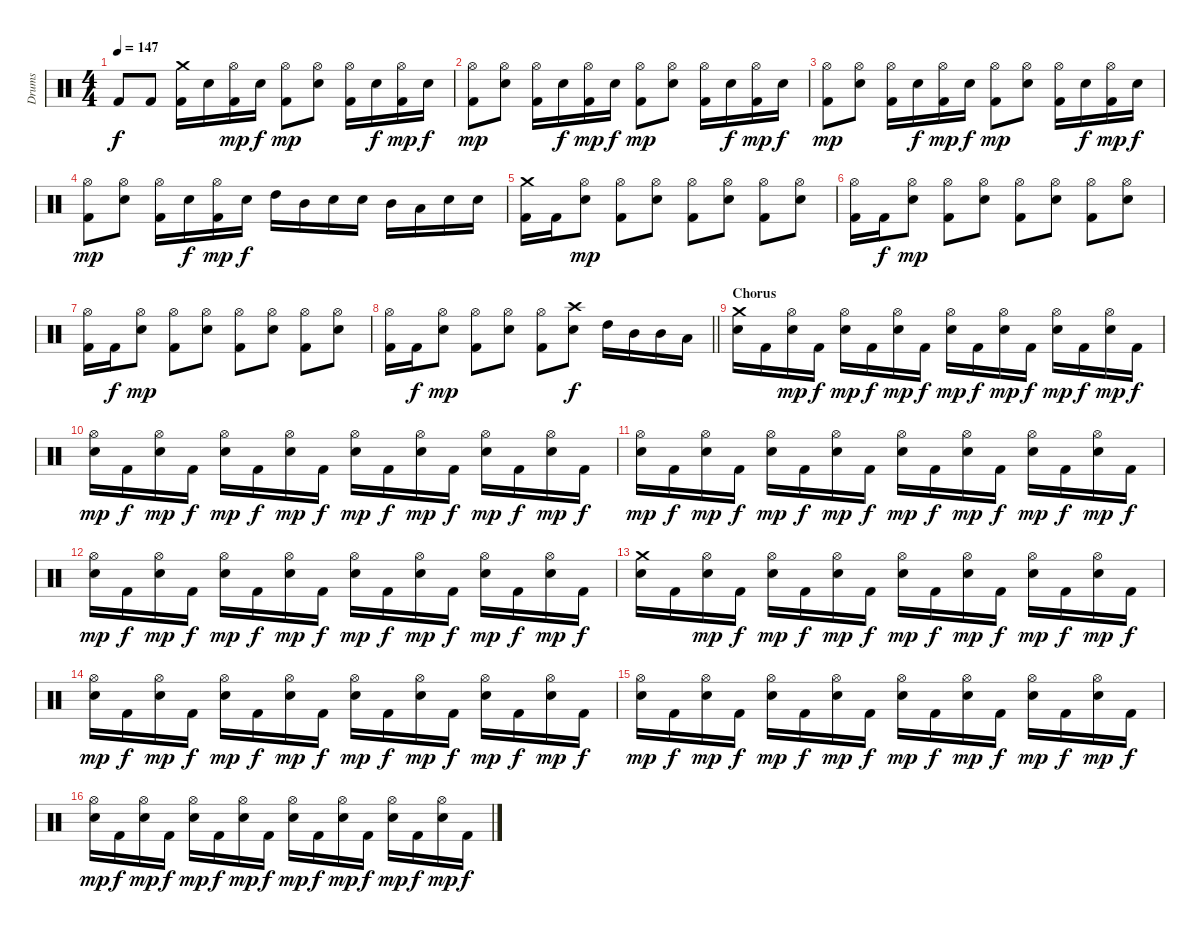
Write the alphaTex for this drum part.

\track ("Drums" "Drums") {instrument percussion}
\staff {score}
\articulation defaults
\ts (4 4)
\tempo 147
\clef neutral
\ks c "Kick (hit) 2".8{dy f} "Kick (hit) 2".8
("Crash medium (hit)" "Kick (hit) 2").16 "Snare (hit) 2".16 ("Hi-Hat (open)" "Kick (hit) 2").16{dy mp} "Snare (hit) 2".16{dy f} ("Hi-Hat (open)" "Kick (hit) 2").8{dy mp} ("Hi-Hat (open)" "Snare (hit) 2").8 ("Hi-Hat (open)" "Kick (hit) 2").16 "Snare (hit) 2".16{dy f} ("Hi-Hat (open)" "Kick (hit) 2").16{dy mp} "Snare (hit) 2".16{dy f} |
("Hi-Hat (open)" "Kick (hit) 2").8{dy mp} ("Hi-Hat (open)" "Snare (hit) 2").8 ("Hi-Hat (open)" "Kick (hit) 2").16 "Snare (hit) 2".16{dy f} ("Hi-Hat (open)" "Kick (hit) 2").16{dy mp} "Snare (hit) 2".16{dy f} ("Hi-Hat (open)" "Kick (hit) 2").8{dy mp} ("Hi-Hat (open)" "Snare (hit) 2").8 ("Hi-Hat (open)" "Kick (hit) 2").16 "Snare (hit) 2".16{dy f} ("Hi-Hat (open)" "Kick (hit) 2").16{dy mp} "Snare (hit) 2".16{dy f} |
("Hi-Hat (open)" "Kick (hit) 2").8{dy mp} ("Hi-Hat (open)" "Snare (hit) 2").8 ("Hi-Hat (open)" "Kick (hit) 2").16 "Snare (hit) 2".16{dy f} ("Hi-Hat (open)" "Kick (hit) 2").16{dy mp} "Snare (hit) 2".16{dy f} ("Hi-Hat (open)" "Kick (hit) 2").8{dy mp} ("Hi-Hat (open)" "Snare (hit) 2").8 ("Hi-Hat (open)" "Kick (hit) 2").16 "Snare (hit) 2".16{dy f} ("Hi-Hat (open)" "Kick (hit) 2").16{dy mp} "Snare (hit) 2".16{dy f} |
("Hi-Hat (open)" "Kick (hit) 2").8{dy mp} ("Hi-Hat (open)" "Snare (hit) 2").8 ("Hi-Hat (open)" "Kick (hit) 2").16 "Snare (hit) 2".16{dy f} ("Hi-Hat (open)" "Kick (hit) 2").16{dy mp} "Snare (hit) 2".16{dy f} "High Tom (hit)".16 "Mid Tom (hit)".16 "Snare (hit) 2".16 "Snare (hit) 2".16 "Mid Tom (hit)".16 "Low Tom (hit)".16 "Snare (hit) 2".16 "Snare (hit) 2".16 |
("Crash medium (hit)" "Kick (hit) 2").16 "Kick (hit) 2".16 ("Hi-Hat (open)" "Snare (hit) 2").8{dy mp} ("Hi-Hat (open)" "Kick (hit) 2").8 ("Hi-Hat (open)" "Snare (hit) 2").8 ("Hi-Hat (open)" "Kick (hit) 2").8 ("Hi-Hat (open)" "Snare (hit) 2").8 ("Hi-Hat (open)" "Kick (hit) 2").8 ("Hi-Hat (open)" "Snare (hit) 2").8 |
("Hi-Hat (open)" "Kick (hit) 2").16 "Kick (hit) 2".16{dy f} ("Hi-Hat (open)" "Snare (hit) 2").8{dy mp} ("Hi-Hat (open)" "Kick (hit) 2").8 ("Hi-Hat (open)" "Snare (hit) 2").8 ("Hi-Hat (open)" "Kick (hit) 2").8 ("Hi-Hat (open)" "Snare (hit) 2").8 ("Hi-Hat (open)" "Kick (hit) 2").8 ("Hi-Hat (open)" "Snare (hit) 2").8 |
("Hi-Hat (open)" "Kick (hit) 2").16 "Kick (hit) 2".16{dy f} ("Hi-Hat (open)" "Snare (hit) 2").8{dy mp} ("Hi-Hat (open)" "Kick (hit) 2").8 ("Hi-Hat (open)" "Snare (hit) 2").8 ("Hi-Hat (open)" "Kick (hit) 2").8 ("Hi-Hat (open)" "Snare (hit) 2").8 ("Hi-Hat (open)" "Kick (hit) 2").8 ("Hi-Hat (open)" "Snare (hit) 2").8 |
\barLineRight lightlight
("Hi-Hat (open)" "Kick (hit) 2").16 "Kick (hit) 2".16{dy f} ("Hi-Hat (open)" "Snare (hit) 2").8{dy mp} ("Hi-Hat (open)" "Kick (hit) 2").8 ("Hi-Hat (open)" "Snare (hit) 2").8 ("Hi-Hat (open)" "Kick (hit) 2").8 ("Crash high (hit)" "Snare (hit) 2").8{dy f} "High Tom (hit)".16 "Mid Tom (hit)".16 "Mid Tom (hit)".16 "Low Tom (hit)".16 |
\section ("" "Chorus")
("Crash medium (hit)" "Snare (hit) 2").16 "Kick (hit) 2".16 ("Hi-Hat (open)" "Snare (hit) 2").16{dy mp} "Kick (hit) 2".16{dy f} ("Hi-Hat (open)" "Snare (hit) 2").16{dy mp} "Kick (hit) 2".16{dy f} ("Hi-Hat (open)" "Snare (hit) 2").16{dy mp} "Kick (hit) 2".16{dy f} ("Hi-Hat (open)" "Snare (hit) 2").16{dy mp} "Kick (hit) 2".16{dy f} ("Hi-Hat (open)" "Snare (hit) 2").16{dy mp} "Kick (hit) 2".16{dy f} ("Hi-Hat (open)" "Snare (hit) 2").16{dy mp} "Kick (hit) 2".16{dy f} ("Hi-Hat (open)" "Snare (hit) 2").16{dy mp} "Kick (hit) 2".16{dy f} |
("Hi-Hat (open)" "Snare (hit) 2").16{dy mp} "Kick (hit) 2".16{dy f} ("Hi-Hat (open)" "Snare (hit) 2").16{dy mp} "Kick (hit) 2".16{dy f} ("Hi-Hat (open)" "Snare (hit) 2").16{dy mp} "Kick (hit) 2".16{dy f} ("Hi-Hat (open)" "Snare (hit) 2").16{dy mp} "Kick (hit) 2".16{dy f} ("Hi-Hat (open)" "Snare (hit) 2").16{dy mp} "Kick (hit) 2".16{dy f} ("Hi-Hat (open)" "Snare (hit) 2").16{dy mp} "Kick (hit) 2".16{dy f} ("Hi-Hat (open)" "Snare (hit) 2").16{dy mp} "Kick (hit) 2".16{dy f} ("Hi-Hat (open)" "Snare (hit) 2").16{dy mp} "Kick (hit) 2".16{dy f} |
("Hi-Hat (open)" "Snare (hit) 2").16{dy mp} "Kick (hit) 2".16{dy f} ("Hi-Hat (open)" "Snare (hit) 2").16{dy mp} "Kick (hit) 2".16{dy f} ("Hi-Hat (open)" "Snare (hit) 2").16{dy mp} "Kick (hit) 2".16{dy f} ("Hi-Hat (open)" "Snare (hit) 2").16{dy mp} "Kick (hit) 2".16{dy f} ("Hi-Hat (open)" "Snare (hit) 2").16{dy mp} "Kick (hit) 2".16{dy f} ("Hi-Hat (open)" "Snare (hit) 2").16{dy mp} "Kick (hit) 2".16{dy f} ("Hi-Hat (open)" "Snare (hit) 2").16{dy mp} "Kick (hit) 2".16{dy f} ("Hi-Hat (open)" "Snare (hit) 2").16{dy mp} "Kick (hit) 2".16{dy f} |
("Hi-Hat (open)" "Snare (hit) 2").16{dy mp} "Kick (hit) 2".16{dy f} ("Hi-Hat (open)" "Snare (hit) 2").16{dy mp} "Kick (hit) 2".16{dy f} ("Hi-Hat (open)" "Snare (hit) 2").16{dy mp} "Kick (hit) 2".16{dy f} ("Hi-Hat (open)" "Snare (hit) 2").16{dy mp} "Kick (hit) 2".16{dy f} ("Hi-Hat (open)" "Snare (hit) 2").16{dy mp} "Kick (hit) 2".16{dy f} ("Hi-Hat (open)" "Snare (hit) 2").16{dy mp} "Kick (hit) 2".16{dy f} ("Hi-Hat (open)" "Snare (hit) 2").16{dy mp} "Kick (hit) 2".16{dy f} ("Hi-Hat (open)" "Snare (hit) 2").16{dy mp} "Kick (hit) 2".16{dy f} |
("Crash medium (hit)" "Snare (hit) 2").16 "Kick (hit) 2".16 ("Hi-Hat (open)" "Snare (hit) 2").16{dy mp} "Kick (hit) 2".16{dy f} ("Hi-Hat (open)" "Snare (hit) 2").16{dy mp} "Kick (hit) 2".16{dy f} ("Hi-Hat (open)" "Snare (hit) 2").16{dy mp} "Kick (hit) 2".16{dy f} ("Hi-Hat (open)" "Snare (hit) 2").16{dy mp} "Kick (hit) 2".16{dy f} ("Hi-Hat (open)" "Snare (hit) 2").16{dy mp} "Kick (hit) 2".16{dy f} ("Hi-Hat (open)" "Snare (hit) 2").16{dy mp} "Kick (hit) 2".16{dy f} ("Hi-Hat (open)" "Snare (hit) 2").16{dy mp} "Kick (hit) 2".16{dy f} |
("Hi-Hat (open)" "Snare (hit) 2").16{dy mp} "Kick (hit) 2".16{dy f} ("Hi-Hat (open)" "Snare (hit) 2").16{dy mp} "Kick (hit) 2".16{dy f} ("Hi-Hat (open)" "Snare (hit) 2").16{dy mp} "Kick (hit) 2".16{dy f} ("Hi-Hat (open)" "Snare (hit) 2").16{dy mp} "Kick (hit) 2".16{dy f} ("Hi-Hat (open)" "Snare (hit) 2").16{dy mp} "Kick (hit) 2".16{dy f} ("Hi-Hat (open)" "Snare (hit) 2").16{dy mp} "Kick (hit) 2".16{dy f} ("Hi-Hat (open)" "Snare (hit) 2").16{dy mp} "Kick (hit) 2".16{dy f} ("Hi-Hat (open)" "Snare (hit) 2").16{dy mp} "Kick (hit) 2".16{dy f} |
("Hi-Hat (open)" "Snare (hit) 2").16{dy mp} "Kick (hit) 2".16{dy f} ("Hi-Hat (open)" "Snare (hit) 2").16{dy mp} "Kick (hit) 2".16{dy f} ("Hi-Hat (open)" "Snare (hit) 2").16{dy mp} "Kick (hit) 2".16{dy f} ("Hi-Hat (open)" "Snare (hit) 2").16{dy mp} "Kick (hit) 2".16{dy f} ("Hi-Hat (open)" "Snare (hit) 2").16{dy mp} "Kick (hit) 2".16{dy f} ("Hi-Hat (open)" "Snare (hit) 2").16{dy mp} "Kick (hit) 2".16{dy f} ("Hi-Hat (open)" "Snare (hit) 2").16{dy mp} "Kick (hit) 2".16{dy f} ("Hi-Hat (open)" "Snare (hit) 2").16{dy mp} "Kick (hit) 2".16{dy f} |
("Hi-Hat (open)" "Snare (hit) 2").16{dy mp} "Kick (hit) 2".16{dy f} ("Hi-Hat (open)" "Snare (hit) 2").16{dy mp} "Kick (hit) 2".16{dy f} ("Hi-Hat (open)" "Snare (hit) 2").16{dy mp} "Kick (hit) 2".16{dy f} ("Hi-Hat (open)" "Snare (hit) 2").16{dy mp} "Kick (hit) 2".16{dy f} ("Hi-Hat (open)" "Snare (hit) 2").16{dy mp} "Kick (hit) 2".16{dy f} ("Hi-Hat (open)" "Snare (hit) 2").16{dy mp} "Kick (hit) 2".16{dy f} ("Hi-Hat (open)" "Snare (hit) 2").16{dy mp} "Kick (hit) 2".16{dy f} ("Hi-Hat (open)" "Snare (hit) 2").16{dy mp} "Kick (hit) 2".16{dy f}
